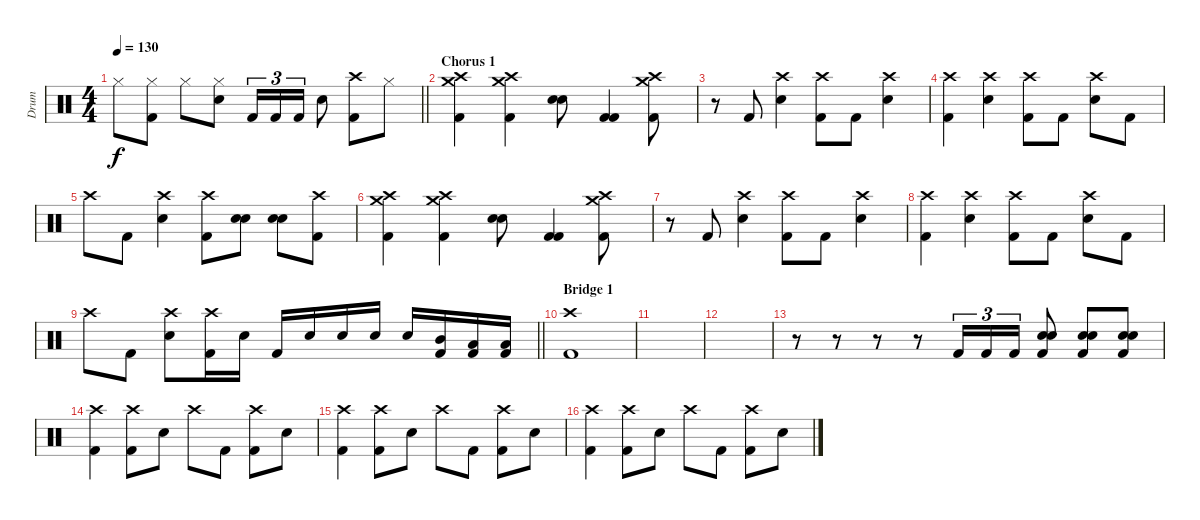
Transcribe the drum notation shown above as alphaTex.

\track ("Drum" "Drum") {instrument percussion}
\staff {score}
\articulation defaults
\ts (4 4)
\tempo 130
\clef neutral
\barLineRight lightlight
\ks c "Hi-Hat (closed)".8{dy f}
("Hi-Hat (closed)" "Kick (hit) 2").8 "Hi-Hat (closed)".8 ("Hi-Hat (closed)" "Electric Snare (hit)").8 "Kick (hit) 2".16{tu (3 2)} "Kick (hit) 2".16{tu (3 2)} "Kick (hit) 2".16{tu (3 2)} "Electric Snare (hit)".8 ("Crash high (hit)" "Kick (hit) 2").8 "Hi-Hat (closed)".8 |
\section ("" "Chorus 1")
("Crash high (hit)" "Crash medium (hit)" "Kick (hit) 2").4 ("Crash high (hit)" "Crash medium (hit)" "Kick (hit) 2").4 ("Electric Snare (hit)" "Electric Snare (hit)").8 ("Kick (hit) 2" "Kick (hit) 2").4 ("Crash high (hit)" "Crash medium (hit)" "Kick (hit) 2").8 |
r.8 "Kick (hit) 2".8 ("Crash high (hit)" "Electric Snare (hit)").4 ("Crash high (hit)" "Kick (hit) 2").8 "Kick (hit) 2".8 ("Crash high (hit)" "Electric Snare (hit)").4 |
("Crash high (hit)" "Kick (hit) 2").4 ("Crash high (hit)" "Electric Snare (hit)").4 ("Crash high (hit)" "Kick (hit) 2").8 "Kick (hit) 2".8 ("Crash high (hit)" "Electric Snare (hit)").8 "Kick (hit) 2".8 |
"Crash high (hit)".8 "Kick (hit) 2".8 ("Crash high (hit)" "Electric Snare (hit)").4 ("Crash high (hit)" "Kick (hit) 2").8 ("Electric Snare (hit)" "Electric Snare (hit)").8 ("Electric Snare (hit)" "Electric Snare (hit)").8 ("Crash high (hit)" "Kick (hit) 2").8 |
("Crash high (hit)" "Crash medium (hit)" "Kick (hit) 2").4 ("Crash high (hit)" "Crash medium (hit)" "Kick (hit) 2").4 ("Electric Snare (hit)" "Electric Snare (hit)").8 ("Kick (hit) 2" "Kick (hit) 2").4 ("Crash high (hit)" "Crash medium (hit)" "Kick (hit) 2").8 |
r.8 "Kick (hit) 2".8 ("Crash high (hit)" "Electric Snare (hit)").4 ("Crash high (hit)" "Kick (hit) 2").8 "Kick (hit) 2".8 ("Crash high (hit)" "Electric Snare (hit)").4 |
("Crash high (hit)" "Kick (hit) 2").4 ("Crash high (hit)" "Electric Snare (hit)").4 ("Crash high (hit)" "Kick (hit) 2").8 "Kick (hit) 2".8 ("Crash high (hit)" "Electric Snare (hit)").8 "Kick (hit) 2".8 |
\barLineRight lightlight "Crash high (hit)".8 "Kick (hit) 2".8
("Crash high (hit)" "Electric Snare (hit)").8 ("Crash high (hit)" "Kick (hit) 2").16 "Electric Snare (hit)".16 "Kick (hit) 2".16 "Electric Snare (hit)".16 "Electric Snare (hit)".16 "Electric Snare (hit)".16 "Electric Snare (hit)".16 ("Mid Tom (hit)" "Kick (hit) 2").16 ("Low Tom (hit)" "Kick (hit) 2").16 ("Low Tom (hit)" "Kick (hit) 2").16 |
\section ("" "Bridge 1")
("Crash high (hit)" "Kick (hit) 2").1 |
|
|
r.8 r.8 r.8 r.8 "Kick (hit) 2".16{tu (3 2)} "Kick (hit) 2".16{tu (3 2)} "Kick (hit) 2".16{tu (3 2)} ("Electric Snare (hit)" "Electric Snare (hit)" "Kick (hit) 2").8 ("Electric Snare (hit)" "Electric Snare (hit)" "Kick (hit) 2").8 ("Electric Snare (hit)" "Electric Snare (hit)" "Kick (hit) 2").8 |
("Crash high (hit)" "Kick (hit) 2").4 ("Crash high (hit)" "Kick (hit) 2").8 "Electric Snare (hit)".8 "Crash high (hit)".8 "Kick (hit) 2".8 ("Crash high (hit)" "Kick (hit) 2").8 "Electric Snare (hit)".8 |
("Crash high (hit)" "Kick (hit) 2").4 ("Crash high (hit)" "Kick (hit) 2").8 "Electric Snare (hit)".8 "Crash high (hit)".8 "Kick (hit) 2".8 ("Crash high (hit)" "Kick (hit) 2").8 "Electric Snare (hit)".8 |
("Crash high (hit)" "Kick (hit) 2").4 ("Crash high (hit)" "Kick (hit) 2").8 "Electric Snare (hit)".8 "Crash high (hit)".8 "Kick (hit) 2".8 ("Crash high (hit)" "Kick (hit) 2").8 "Electric Snare (hit)".8
